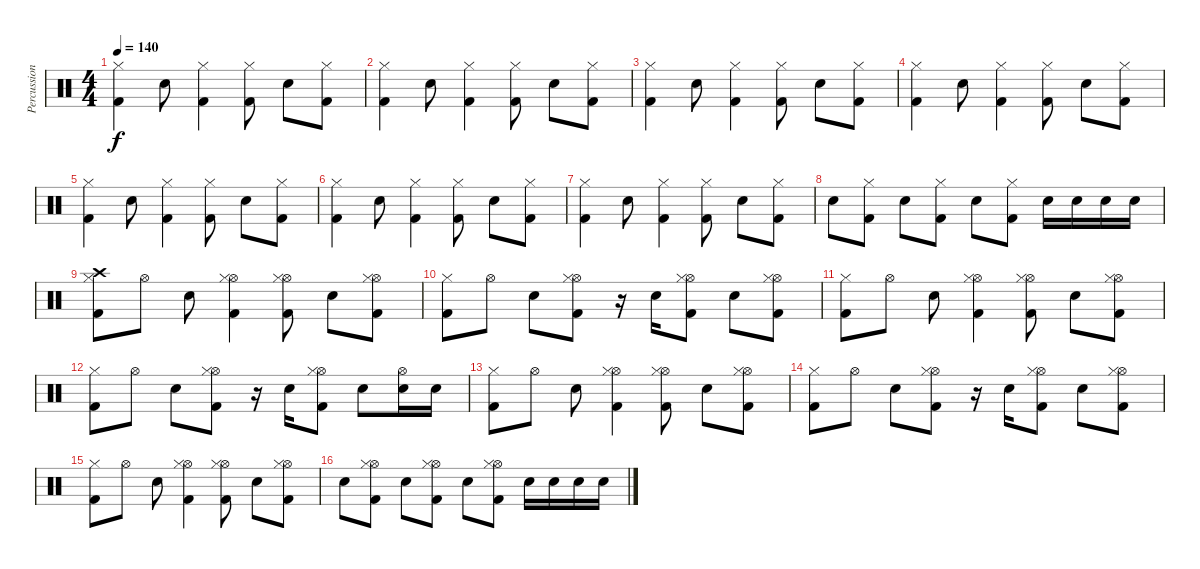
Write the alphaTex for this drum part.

\track ("Percussion" "Percussion") {instrument percussion}
\staff {score}
\articulation defaults
\ts (4 4)
\tempo 140
\clef neutral
\ks c
("Kick (hit) 2" "Hi-Hat (closed)").4{dy f} "Snare (hit) 2".8 ("Kick (hit) 2" "Hi-Hat (closed)").4 ("Kick (hit) 2" "Hi-Hat (closed)").8 "Snare (hit) 2".8 ("Kick (hit) 2" "Hi-Hat (closed)").8 |
("Kick (hit) 2" "Hi-Hat (closed)").4 "Snare (hit) 2".8 ("Kick (hit) 2" "Hi-Hat (closed)").4 ("Kick (hit) 2" "Hi-Hat (closed)").8 "Snare (hit) 2".8 ("Kick (hit) 2" "Hi-Hat (closed)").8 |
("Kick (hit) 2" "Hi-Hat (closed)").4 "Snare (hit) 2".8 ("Kick (hit) 2" "Hi-Hat (closed)").4 ("Kick (hit) 2" "Hi-Hat (closed)").8 "Snare (hit) 2".8 ("Kick (hit) 2" "Hi-Hat (closed)").8 |
("Kick (hit) 2" "Hi-Hat (closed)").4 "Snare (hit) 2".8 ("Kick (hit) 2" "Hi-Hat (closed)").4 ("Kick (hit) 2" "Hi-Hat (closed)").8 "Snare (hit) 2".8 ("Kick (hit) 2" "Hi-Hat (closed)").8 |
("Kick (hit) 2" "Hi-Hat (closed)").4 "Snare (hit) 2".8 ("Kick (hit) 2" "Hi-Hat (closed)").4 ("Kick (hit) 2" "Hi-Hat (closed)").8 "Snare (hit) 2".8 ("Kick (hit) 2" "Hi-Hat (closed)").8 |
("Kick (hit) 2" "Hi-Hat (closed)").4 "Snare (hit) 2".8 ("Kick (hit) 2" "Hi-Hat (closed)").4 ("Kick (hit) 2" "Hi-Hat (closed)").8 "Snare (hit) 2".8 ("Kick (hit) 2" "Hi-Hat (closed)").8 |
("Kick (hit) 2" "Hi-Hat (closed)").4 "Snare (hit) 2".8 ("Kick (hit) 2" "Hi-Hat (closed)").4 ("Kick (hit) 2" "Hi-Hat (closed)").8 "Snare (hit) 2".8 ("Kick (hit) 2" "Hi-Hat (closed)").8 |
"Snare (hit) 2".8 ("Kick (hit) 2" "Hi-Hat (closed)").8 "Snare (hit) 2".8 ("Kick (hit) 2" "Hi-Hat (closed)").8 "Snare (hit) 2".8 ("Kick (hit) 2" "Hi-Hat (closed)").8 "Snare (hit) 2".16 "Snare (hit) 2".16 "Snare (hit) 2".16 "Snare (hit) 2".16 |
("Kick (hit) 2" "Crash high (hit)" "Hi-Hat (closed)").8 "Hi-Hat (open)".8 "Snare (hit) 2".8 ("Kick (hit) 2" "Hi-Hat (open)" "Hi-Hat (closed)").4 ("Kick (hit) 2" "Hi-Hat (open)" "Hi-Hat (closed)").8 "Snare (hit) 2".8 ("Kick (hit) 2" "Hi-Hat (open)" "Hi-Hat (closed)").8 |
("Kick (hit) 2" "Hi-Hat (closed)").8 "Hi-Hat (open)".8 "Snare (hit) 2".8 ("Kick (hit) 2" "Hi-Hat (open)" "Hi-Hat (closed)").8 r.16 "Snare (hit) 2".16 ("Kick (hit) 2" "Hi-Hat (open)" "Hi-Hat (closed)").8 "Snare (hit) 2".8 ("Kick (hit) 2" "Hi-Hat (open)" "Hi-Hat (closed)").8 |
("Kick (hit) 2" "Hi-Hat (closed)").8 "Hi-Hat (open)".8 "Snare (hit) 2".8 ("Kick (hit) 2" "Hi-Hat (open)" "Hi-Hat (closed)").4 ("Kick (hit) 2" "Hi-Hat (open)" "Hi-Hat (closed)").8 "Snare (hit) 2".8 ("Kick (hit) 2" "Hi-Hat (open)" "Hi-Hat (closed)").8 |
("Kick (hit) 2" "Hi-Hat (closed)").8 "Hi-Hat (open)".8 "Snare (hit) 2".8 ("Kick (hit) 2" "Hi-Hat (open)" "Hi-Hat (closed)").8 r.16 "Snare (hit) 2".16 ("Kick (hit) 2" "Hi-Hat (open)" "Hi-Hat (closed)").8 "Snare (hit) 2".8 ("Snare (hit) 2" "Hi-Hat (open)").16 "Snare (hit) 2".16 |
("Kick (hit) 2" "Hi-Hat (closed)").8 "Hi-Hat (open)".8 "Snare (hit) 2".8 ("Kick (hit) 2" "Hi-Hat (open)" "Hi-Hat (closed)").4 ("Kick (hit) 2" "Hi-Hat (open)" "Hi-Hat (closed)").8 "Snare (hit) 2".8 ("Kick (hit) 2" "Hi-Hat (open)" "Hi-Hat (closed)").8 |
("Kick (hit) 2" "Hi-Hat (closed)").8 "Hi-Hat (open)".8 "Snare (hit) 2".8 ("Kick (hit) 2" "Hi-Hat (open)" "Hi-Hat (closed)").8 r.16 "Snare (hit) 2".16 ("Kick (hit) 2" "Hi-Hat (open)" "Hi-Hat (closed)").8 "Snare (hit) 2".8 ("Kick (hit) 2" "Hi-Hat (open)" "Hi-Hat (closed)").8 |
("Kick (hit) 2" "Hi-Hat (closed)").8 "Hi-Hat (open)".8 "Snare (hit) 2".8 ("Kick (hit) 2" "Hi-Hat (open)" "Hi-Hat (closed)").4 ("Kick (hit) 2" "Hi-Hat (open)" "Hi-Hat (closed)").8 "Snare (hit) 2".8 ("Kick (hit) 2" "Hi-Hat (open)" "Hi-Hat (closed)").8 |
"Snare (hit) 2".8 ("Kick (hit) 2" "Hi-Hat (open)" "Hi-Hat (closed)").8 "Snare (hit) 2".8 ("Kick (hit) 2" "Hi-Hat (open)" "Hi-Hat (closed)").8 "Snare (hit) 2".8 ("Kick (hit) 2" "Hi-Hat (open)" "Hi-Hat (closed)").8 "Snare (hit) 2".16 "Snare (hit) 2".16 "Snare (hit) 2".16 "Snare (hit) 2".16
